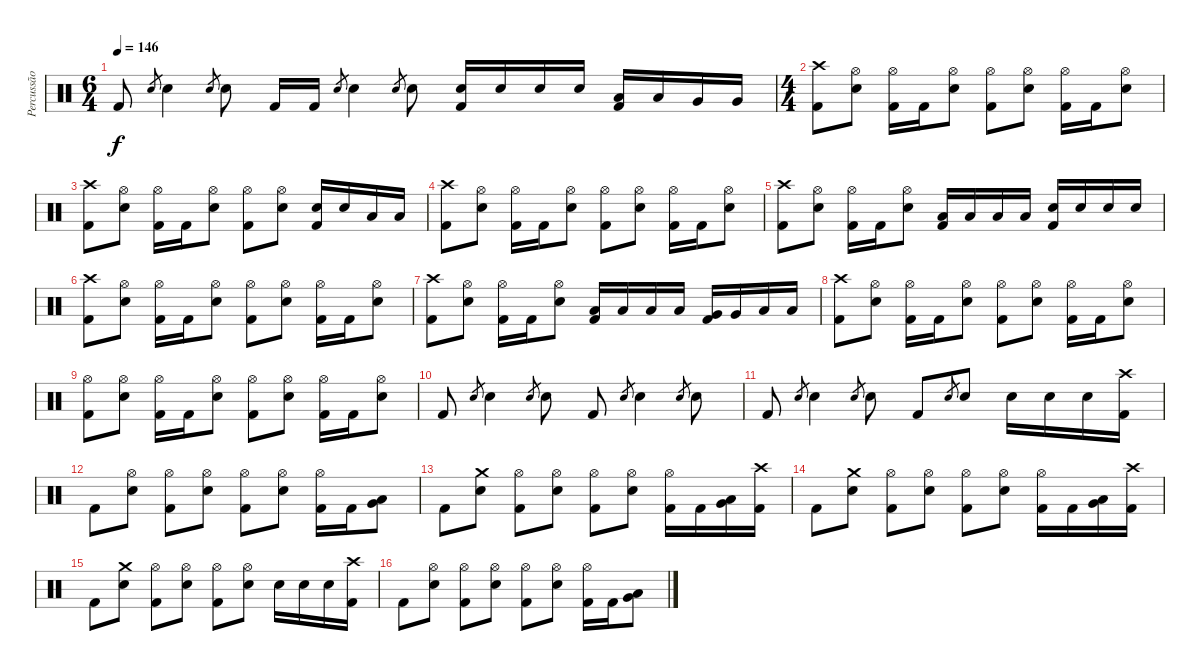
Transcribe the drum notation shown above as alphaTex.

\track ("Percussão" "Percussão") {instrument percussion}
\staff {score}
\articulation defaults
\ts (6 4)
\tempo 146
\clef neutral
\ks c "Kick (hit) 2".8{dy f} "Snare (hit) 2".8{gr} "Snare (hit) 2".4 "Snare (hit) 2".8{gr} "Snare (hit) 2".8 "Kick (hit) 2".16 "Kick (hit) 2".16 "Snare (hit) 2".8{gr} "Snare (hit) 2".4 "Snare (hit) 2".8{gr} "Snare (hit) 2".8
("Snare (hit) 2" "Kick (hit) 2").16 "Snare (hit) 2".16 "Snare (hit) 2".16 "Snare (hit) 2".16 ("Low Tom (hit)" "Kick (hit) 2").16 "Low Tom (hit)".16 "Very Low Tom (hit)".16 "Very Low Tom (hit)".16 |
\ts (4 4)
\section ("" "")
("Crash high (hit)" "Kick (hit) 2").8 ("Hi-Hat (open)" "Snare (hit) 2").8 ("Hi-Hat (open)" "Kick (hit) 2").16 "Kick (hit) 2".16 ("Hi-Hat (open)" "Snare (hit) 2").8 ("Hi-Hat (open)" "Kick (hit) 2").8 ("Hi-Hat (open)" "Snare (hit) 2").8 ("Hi-Hat (open)" "Kick (hit) 2").16 "Kick (hit) 2".16 ("Hi-Hat (open)" "Snare (hit) 2").8 |
("Crash high (hit)" "Kick (hit) 2").8 ("Hi-Hat (open)" "Snare (hit) 2").8 ("Hi-Hat (open)" "Kick (hit) 2").16 "Kick (hit) 2".16 ("Hi-Hat (open)" "Snare (hit) 2").8 ("Hi-Hat (open)" "Kick (hit) 2").8 ("Hi-Hat (open)" "Snare (hit) 2").8 ("Snare (hit) 2" "Kick (hit) 2").16 "Snare (hit) 2".16 "Low Tom (hit)".16 "Low Tom (hit)".16 |
("Crash high (hit)" "Kick (hit) 2").8 ("Hi-Hat (open)" "Snare (hit) 2").8 ("Hi-Hat (open)" "Kick (hit) 2").16 "Kick (hit) 2".16 ("Hi-Hat (open)" "Snare (hit) 2").8 ("Hi-Hat (open)" "Kick (hit) 2").8 ("Hi-Hat (open)" "Snare (hit) 2").8 ("Hi-Hat (open)" "Kick (hit) 2").16 "Kick (hit) 2".16 ("Hi-Hat (open)" "Snare (hit) 2").8 |
("Crash high (hit)" "Kick (hit) 2").8 ("Hi-Hat (open)" "Snare (hit) 2").8 ("Hi-Hat (open)" "Kick (hit) 2").16 "Kick (hit) 2".16 ("Hi-Hat (open)" "Snare (hit) 2").8 ("Low Floor Tom (hit)" "Kick (hit) 2").16 "Low Floor Tom (hit)".16 "Low Floor Tom (hit)".16 "Low Floor Tom (hit)".16 ("Snare (hit) 2" "Kick (hit) 2").16 "Snare (hit) 2".16 "Snare (hit) 2".16 "Snare (hit) 2".16 |
("Crash high (hit)" "Kick (hit) 2").8 ("Hi-Hat (open)" "Snare (hit) 2").8 ("Hi-Hat (open)" "Kick (hit) 2").16 "Kick (hit) 2".16 ("Hi-Hat (open)" "Snare (hit) 2").8 ("Hi-Hat (open)" "Kick (hit) 2").8 ("Hi-Hat (open)" "Snare (hit) 2").8 ("Hi-Hat (open)" "Kick (hit) 2").16 "Kick (hit) 2".16 ("Hi-Hat (open)" "Snare (hit) 2").8 |
("Crash high (hit)" "Kick (hit) 2").8 ("Hi-Hat (open)" "Snare (hit) 2").8 ("Hi-Hat (open)" "Kick (hit) 2").16 "Kick (hit) 2".16 ("Hi-Hat (open)" "Snare (hit) 2").8 ("Low Tom (hit)" "Kick (hit) 2").16 "Low Tom (hit)".16 "Low Tom (hit)".16 "Low Tom (hit)".16 ("Very Low Tom (hit)" "Kick (hit) 2").16 "Very Low Tom (hit)".16 "Low Floor Tom (hit)".16 "Low Floor Tom (hit)".16 |
("Crash high (hit)" "Kick (hit) 2").8 ("Hi-Hat (open)" "Snare (hit) 2").8 ("Hi-Hat (open)" "Kick (hit) 2").16 "Kick (hit) 2".16 ("Hi-Hat (open)" "Snare (hit) 2").8 ("Hi-Hat (open)" "Kick (hit) 2").8 ("Hi-Hat (open)" "Snare (hit) 2").8 ("Hi-Hat (open)" "Kick (hit) 2").16 "Kick (hit) 2".16 ("Hi-Hat (open)" "Snare (hit) 2").8 |
("Hi-Hat (open)" "Kick (hit) 2").8 ("Hi-Hat (open)" "Snare (hit) 2").8 ("Hi-Hat (open)" "Kick (hit) 2").16 "Kick (hit) 2".16 ("Hi-Hat (open)" "Snare (hit) 2").8 ("Hi-Hat (open)" "Kick (hit) 2").8 ("Hi-Hat (open)" "Snare (hit) 2").8 ("Hi-Hat (open)" "Kick (hit) 2").16 "Kick (hit) 2".16 ("Hi-Hat (open)" "Snare (hit) 2").8 |
"Kick (hit) 2".8 "Snare (hit) 2".8{gr} "Snare (hit) 2".4 "Snare (hit) 2".8{gr} "Snare (hit) 2".8 "Kick (hit) 2".8 "Snare (hit) 2".8{gr} "Snare (hit) 2".4 "Snare (hit) 2".8{gr} "Snare (hit) 2".8 |
"Kick (hit) 2".8 "Snare (hit) 2".8{gr} "Snare (hit) 2".4 "Snare (hit) 2".8{gr} "Snare (hit) 2".8 "Kick (hit) 2".8 "Snare (hit) 2".8{gr} "Snare (hit) 2".8 "Snare (hit) 2".16 "Snare (hit) 2".16 "Snare (hit) 2".16 ("Crash high (hit)" "Kick (hit) 2").16 |
"Kick (hit) 2".8 ("Hi-Hat (open)" "Snare (hit) 2").8 ("Hi-Hat (open)" "Kick (hit) 2").8 ("Hi-Hat (open)" "Snare (hit) 2").8 ("Hi-Hat (open)" "Kick (hit) 2").8 ("Hi-Hat (open)" "Snare (hit) 2").8 ("Hi-Hat (open)" "Kick (hit) 2").16 "Kick (hit) 2".16 ("Very Low Tom (hit)" "Low Tom (hit)").8 |
"Kick (hit) 2".8 ("Crash medium (hit)" "Snare (hit) 2").8 ("Hi-Hat (open)" "Kick (hit) 2").8 ("Hi-Hat (open)" "Snare (hit) 2").8 ("Hi-Hat (open)" "Kick (hit) 2").8 ("Hi-Hat (open)" "Snare (hit) 2").8 ("Hi-Hat (open)" "Kick (hit) 2").16 "Kick (hit) 2".16 ("Very Low Tom (hit)" "Low Tom (hit)").16 ("Crash high (hit)" "Kick (hit) 2").16 |
"Kick (hit) 2".8 ("Crash medium (hit)" "Snare (hit) 2").8 ("Hi-Hat (open)" "Kick (hit) 2").8 ("Hi-Hat (open)" "Snare (hit) 2").8 ("Hi-Hat (open)" "Kick (hit) 2").8 ("Hi-Hat (open)" "Snare (hit) 2").8 ("Hi-Hat (open)" "Kick (hit) 2").16 "Kick (hit) 2".16 ("Very Low Tom (hit)" "Low Tom (hit)").16 ("Crash high (hit)" "Kick (hit) 2").16 |
"Kick (hit) 2".8 ("Crash medium (hit)" "Snare (hit) 2").8 ("Hi-Hat (open)" "Kick (hit) 2").8 ("Hi-Hat (open)" "Snare (hit) 2").8 ("Hi-Hat (open)" "Kick (hit) 2").8 ("Hi-Hat (open)" "Snare (hit) 2").8 "Snare (hit) 2".16 "Snare (hit) 2".16 "Snare (hit) 2".16 ("Crash high (hit)" "Kick (hit) 2").16 |
"Kick (hit) 2".8 ("Hi-Hat (open)" "Snare (hit) 2").8 ("Hi-Hat (open)" "Kick (hit) 2").8 ("Hi-Hat (open)" "Snare (hit) 2").8 ("Hi-Hat (open)" "Kick (hit) 2").8 ("Hi-Hat (open)" "Snare (hit) 2").8 ("Hi-Hat (open)" "Kick (hit) 2").16 "Kick (hit) 2".16 ("Very Low Tom (hit)" "Low Tom (hit)").8
